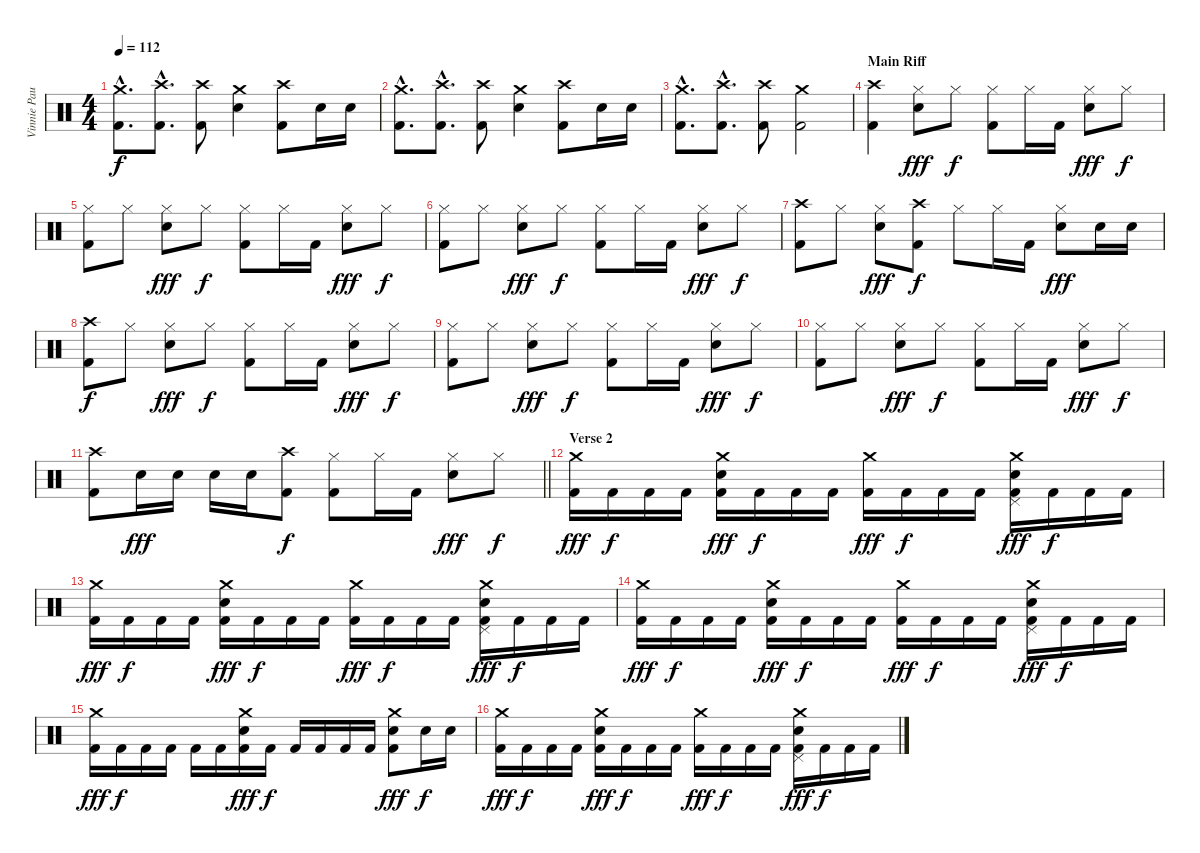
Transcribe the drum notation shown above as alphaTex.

\track ("Vinnie Paul" "Vinnie Pau") {instrument percussion}
\staff {score}
\articulation defaults
\ts (4 4)
\tempo 112
\clef neutral
\ks c
("Crash medium (hit)"{hac} "Kick (hit) 2"{hac}).8{d dy f} ("Crash high (hit)"{hac} "Kick (hit) 2"{hac}).8{d} ("Crash high (hit)" "Kick (hit) 2").8 ("Crash medium (hit)" "Electric Snare (hit)").4 ("Crash high (hit)" "Kick (hit) 2").8 "Electric Snare (hit)".16 "Electric Snare (hit)".16 |
("Crash medium (hit)"{hac} "Kick (hit) 2"{hac}).8{d} ("Crash high (hit)"{hac} "Kick (hit) 2"{hac}).8{d} ("Crash high (hit)" "Kick (hit) 2").8 ("Crash medium (hit)" "Electric Snare (hit)").4 ("Crash high (hit)" "Kick (hit) 2").8 "Electric Snare (hit)".16 "Electric Snare (hit)".16 |
("Crash medium (hit)"{hac} "Kick (hit) 2"{hac}).8{d} ("Crash high (hit)"{hac} "Kick (hit) 2"{hac}).8{d} ("Crash high (hit)" "Kick (hit) 2").8 ("Crash medium (hit)" "Kick (hit) 2").2 |
\section ("" "Main Riff")
("Crash high (hit)" "Kick (hit) 2").4 ("Hi-Hat (closed)" "Electric Snare (hit)").8{dy fff} "Hi-Hat (closed)".8{dy f} ("Hi-Hat (closed)" "Kick (hit) 2").8 "Hi-Hat (closed)".16 "Kick (hit) 2".16 ("Hi-Hat (closed)" "Electric Snare (hit)").8{dy fff} "Hi-Hat (closed)".8{dy f} |
("Hi-Hat (closed)" "Kick (hit) 2").8 "Hi-Hat (closed)".8 ("Hi-Hat (closed)" "Electric Snare (hit)").8{dy fff} "Hi-Hat (closed)".8{dy f} ("Hi-Hat (closed)" "Kick (hit) 2").8 "Hi-Hat (closed)".16 "Kick (hit) 2".16 ("Hi-Hat (closed)" "Electric Snare (hit)").8{dy fff} "Hi-Hat (closed)".8{dy f} |
("Hi-Hat (closed)" "Kick (hit) 2").8 "Hi-Hat (closed)".8 ("Hi-Hat (closed)" "Electric Snare (hit)").8{dy fff} "Hi-Hat (closed)".8{dy f} ("Hi-Hat (closed)" "Kick (hit) 2").8 "Hi-Hat (closed)".16 "Kick (hit) 2".16 ("Hi-Hat (closed)" "Electric Snare (hit)").8{dy fff} "Hi-Hat (closed)".8{dy f} |
("Crash high (hit)" "Kick (hit) 2").8 "Hi-Hat (closed)".8 ("Hi-Hat (closed)" "Electric Snare (hit)").8{dy fff} ("Crash high (hit)" "Kick (hit) 2").8{dy f} "Hi-Hat (closed)".8 "Hi-Hat (closed)".16 "Kick (hit) 2".16 ("Hi-Hat (closed)" "Electric Snare (hit)").8{dy fff} "Electric Snare (hit)".16 "Electric Snare (hit)".16 |
("Crash high (hit)" "Kick (hit) 2").8{dy f} "Hi-Hat (closed)".8 ("Hi-Hat (closed)" "Electric Snare (hit)").8{dy fff} "Hi-Hat (closed)".8{dy f} ("Hi-Hat (closed)" "Kick (hit) 2").8 "Hi-Hat (closed)".16 "Kick (hit) 2".16 ("Hi-Hat (closed)" "Electric Snare (hit)").8{dy fff} "Hi-Hat (closed)".8{dy f} |
("Hi-Hat (closed)" "Kick (hit) 2").8 "Hi-Hat (closed)".8 ("Hi-Hat (closed)" "Electric Snare (hit)").8{dy fff} "Hi-Hat (closed)".8{dy f} ("Hi-Hat (closed)" "Kick (hit) 2").8 "Hi-Hat (closed)".16 "Kick (hit) 2".16 ("Hi-Hat (closed)" "Electric Snare (hit)").8{dy fff} "Hi-Hat (closed)".8{dy f} |
("Hi-Hat (closed)" "Kick (hit) 2").8 "Hi-Hat (closed)".8 ("Hi-Hat (closed)" "Electric Snare (hit)").8{dy fff} "Hi-Hat (closed)".8{dy f} ("Hi-Hat (closed)" "Kick (hit) 2").8 "Hi-Hat (closed)".16 "Kick (hit) 2".16 ("Hi-Hat (closed)" "Electric Snare (hit)").8{dy fff} "Hi-Hat (closed)".8{dy f} |
\barLineRight lightlight
("Crash high (hit)" "Kick (hit) 2").8 "Electric Snare (hit)".16{dy fff} "Electric Snare (hit)".16 "Electric Snare (hit)".16 "Electric Snare (hit)".16 ("Crash high (hit)" "Kick (hit) 2").8{dy f} ("Hi-Hat (closed)" "Kick (hit) 2").8 "Hi-Hat (closed)".16 "Kick (hit) 2".16 ("Hi-Hat (closed)" "Electric Snare (hit)").8{dy fff} "Hi-Hat (closed)".8{dy f} |
\section ("" "Verse 2")
("Crash medium (hit)" "Kick (hit) 2").16{dy fff} "Kick (hit) 2".16{dy f} "Kick (hit) 2".16 "Kick (hit) 2".16 ("Crash medium (hit)" "Electric Snare (hit)" "Kick (hit) 2").16{dy fff} "Kick (hit) 2".16{dy f} "Kick (hit) 2".16 "Kick (hit) 2".16 ("Crash medium (hit)" "Kick (hit) 2").16{dy fff} "Kick (hit) 2".16{dy f} "Kick (hit) 2".16 "Kick (hit) 2".16 ("Crash medium (hit)" "Pedal Hi-Hat (hit)" "Electric Snare (hit)" "Kick (hit) 2").16{dy fff} "Kick (hit) 2".16{dy f} "Kick (hit) 2".16 "Kick (hit) 2".16 |
("Crash medium (hit)" "Kick (hit) 2").16{dy fff} "Kick (hit) 2".16{dy f} "Kick (hit) 2".16 "Kick (hit) 2".16 ("Crash medium (hit)" "Electric Snare (hit)" "Kick (hit) 2").16{dy fff} "Kick (hit) 2".16{dy f} "Kick (hit) 2".16 "Kick (hit) 2".16 ("Crash medium (hit)" "Kick (hit) 2").16{dy fff} "Kick (hit) 2".16{dy f} "Kick (hit) 2".16 "Kick (hit) 2".16 ("Crash medium (hit)" "Pedal Hi-Hat (hit)" "Electric Snare (hit)" "Kick (hit) 2").16{dy fff} "Kick (hit) 2".16{dy f} "Kick (hit) 2".16 "Kick (hit) 2".16 |
("Crash medium (hit)" "Kick (hit) 2").16{dy fff} "Kick (hit) 2".16{dy f} "Kick (hit) 2".16 "Kick (hit) 2".16 ("Crash medium (hit)" "Electric Snare (hit)" "Kick (hit) 2").16{dy fff} "Kick (hit) 2".16{dy f} "Kick (hit) 2".16 "Kick (hit) 2".16 ("Crash medium (hit)" "Kick (hit) 2").16{dy fff} "Kick (hit) 2".16{dy f} "Kick (hit) 2".16 "Kick (hit) 2".16 ("Crash medium (hit)" "Pedal Hi-Hat (hit)" "Electric Snare (hit)" "Kick (hit) 2").16{dy fff} "Kick (hit) 2".16{dy f} "Kick (hit) 2".16 "Kick (hit) 2".16 |
("Crash medium (hit)" "Kick (hit) 2").16{dy fff} "Kick (hit) 2".16{dy f} "Kick (hit) 2".16 "Kick (hit) 2".16 "Kick (hit) 2".16 "Kick (hit) 2".16 ("Crash medium (hit)" "Electric Snare (hit)" "Kick (hit) 2").16{dy fff} "Kick (hit) 2".16{dy f} "Kick (hit) 2".16 "Kick (hit) 2".16 "Kick (hit) 2".16 "Kick (hit) 2".16 ("Crash medium (hit)" "Electric Snare (hit)" "Kick (hit) 2").8{dy fff} "Electric Snare (hit)".16{dy f} "Electric Snare (hit)".16 |
("Crash medium (hit)" "Kick (hit) 2").16{dy fff} "Kick (hit) 2".16{dy f} "Kick (hit) 2".16 "Kick (hit) 2".16 ("Crash medium (hit)" "Electric Snare (hit)" "Kick (hit) 2").16{dy fff} "Kick (hit) 2".16{dy f} "Kick (hit) 2".16 "Kick (hit) 2".16 ("Crash medium (hit)" "Kick (hit) 2").16{dy fff} "Kick (hit) 2".16{dy f} "Kick (hit) 2".16 "Kick (hit) 2".16 ("Crash medium (hit)" "Pedal Hi-Hat (hit)" "Electric Snare (hit)" "Kick (hit) 2").16{dy fff} "Kick (hit) 2".16{dy f} "Kick (hit) 2".16 "Kick (hit) 2".16
